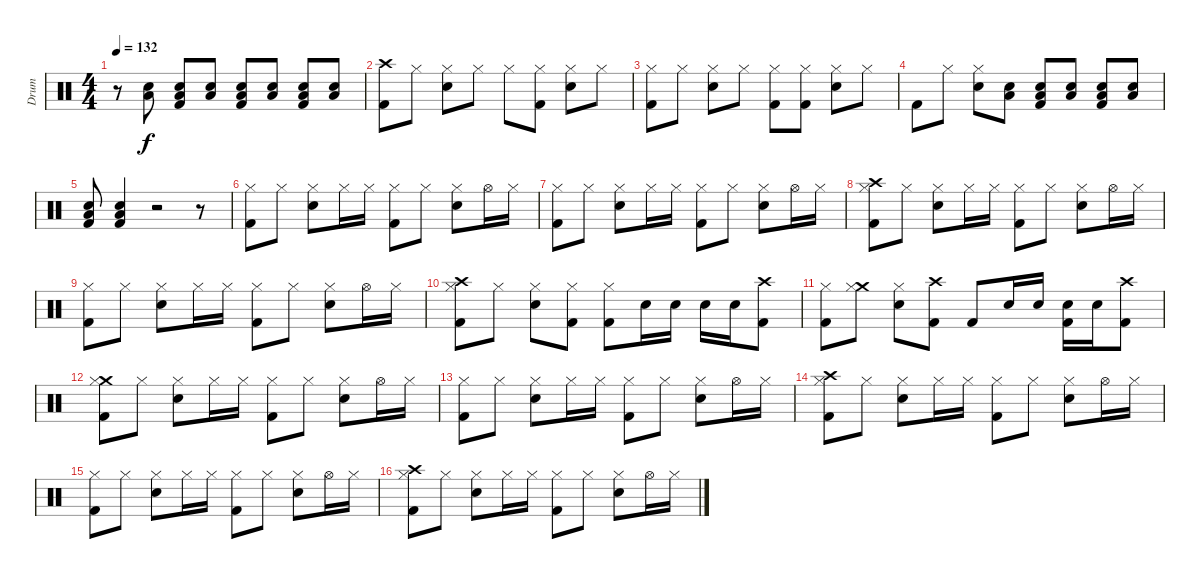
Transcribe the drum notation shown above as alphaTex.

\track ("Drum" "Drum") {instrument percussion}
\staff {score}
\articulation defaults
\ts (4 4)
\tempo 132
\clef neutral
\ks c
r.8{dy f} ("Low Tom (hit)" "Snare (hit) 2").8 ("Low Tom (hit)" "Snare (hit) 2" "Kick (hit) 2").8 ("Low Tom (hit)" "Snare (hit) 2").8 ("Low Tom (hit)" "Snare (hit) 2" "Kick (hit) 2").8 ("Low Tom (hit)" "Snare (hit) 2").8 ("Low Tom (hit)" "Snare (hit) 2" "Kick (hit) 2").8 ("Low Tom (hit)" "Snare (hit) 2").8 |
("Crash high (hit)" "Kick (hit) 2").8 "Hi-Hat (closed)".8 ("Hi-Hat (closed)" "Snare (hit) 2").8 "Hi-Hat (closed)".8 "Hi-Hat (closed)".8 ("Hi-Hat (closed)" "Kick (hit) 2").8 ("Hi-Hat (closed)" "Snare (hit) 2").8 "Hi-Hat (closed)".8 |
("Hi-Hat (closed)" "Kick (hit) 2").8 "Hi-Hat (closed)".8 ("Hi-Hat (closed)" "Snare (hit) 2").8 "Hi-Hat (closed)".8 ("Hi-Hat (closed)" "Kick (hit) 2").8 ("Hi-Hat (closed)" "Kick (hit) 2").8 ("Hi-Hat (closed)" "Snare (hit) 2").8 "Hi-Hat (closed)".8 |
"Kick (hit) 2".8 "Hi-Hat (closed)".8 ("Hi-Hat (closed)" "Snare (hit) 2").8 ("Low Tom (hit)" "Snare (hit) 2").8 ("Low Tom (hit)" "Snare (hit) 2" "Kick (hit) 2").8 ("Low Tom (hit)" "Snare (hit) 2").8 ("Low Tom (hit)" "Snare (hit) 2" "Kick (hit) 2").8 ("Low Tom (hit)" "Snare (hit) 2").8 |
("Snare (hit) 2" "Low Tom (hit)" "Kick (hit) 2").8 ("Snare (hit) 2" "Low Tom (hit)" "Kick (hit) 2").4 r.2 r.8 |
("Hi-Hat (closed)" "Kick (hit) 2").8 "Hi-Hat (closed)".8 ("Hi-Hat (closed)" "Snare (hit) 2").8 "Hi-Hat (closed)".16 "Hi-Hat (closed)".16 ("Hi-Hat (closed)" "Kick (hit) 2").8 "Hi-Hat (closed)".8 ("Hi-Hat (closed)" "Snare (hit) 2").8 "Hi-Hat (open)".16 "Hi-Hat (closed)".16 |
("Hi-Hat (closed)" "Kick (hit) 2").8 "Hi-Hat (closed)".8 ("Hi-Hat (closed)" "Snare (hit) 2").8 "Hi-Hat (closed)".16 "Hi-Hat (closed)".16 ("Hi-Hat (closed)" "Kick (hit) 2").8 "Hi-Hat (closed)".8 ("Hi-Hat (closed)" "Snare (hit) 2").8 "Hi-Hat (open)".16 "Hi-Hat (closed)".16 |
("Crash high (hit)" "Hi-Hat (closed)" "Kick (hit) 2").8 "Hi-Hat (closed)".8 ("Hi-Hat (closed)" "Snare (hit) 2").8 "Hi-Hat (closed)".16 "Hi-Hat (closed)".16 ("Hi-Hat (closed)" "Kick (hit) 2").8 "Hi-Hat (closed)".8 ("Hi-Hat (closed)" "Snare (hit) 2").8 "Hi-Hat (open)".16 "Hi-Hat (closed)".16 |
("Hi-Hat (closed)" "Kick (hit) 2").8 "Hi-Hat (closed)".8 ("Hi-Hat (closed)" "Snare (hit) 2").8 "Hi-Hat (closed)".16 "Hi-Hat (closed)".16 ("Hi-Hat (closed)" "Kick (hit) 2").8 "Hi-Hat (closed)".8 ("Hi-Hat (closed)" "Snare (hit) 2").8 "Hi-Hat (open)".16 "Hi-Hat (closed)".16 |
("Crash high (hit)" "Hi-Hat (closed)" "Kick (hit) 2").8 "Hi-Hat (closed)".8 ("Hi-Hat (closed)" "Snare (hit) 2").8 ("Hi-Hat (closed)" "Kick (hit) 2").8 ("Hi-Hat (closed)" "Kick (hit) 2").8 "Snare (hit) 2".16 "Snare (hit) 2".16 "Snare (hit) 2".16 "Snare (hit) 2".16 ("Crash high (hit)" "Kick (hit) 2").8 |
("Hi-Hat (closed)" "Kick (hit) 2").8 ("Crash medium (hit)" "Hi-Hat (closed)").8 ("Hi-Hat (closed)" "Snare (hit) 2").8 ("Crash high (hit)" "Kick (hit) 2").8 "Kick (hit) 2".8 "Snare (hit) 2".16 "Snare (hit) 2".16 ("Snare (hit) 2" "Kick (hit) 2").16 "Snare (hit) 2".16 ("Crash high (hit)" "Kick (hit) 2").8 |
("Crash medium (hit)" "Hi-Hat (closed)" "Kick (hit) 2").8 "Hi-Hat (closed)".8 ("Hi-Hat (closed)" "Snare (hit) 2").8 "Hi-Hat (closed)".16 "Hi-Hat (closed)".16 ("Hi-Hat (closed)" "Kick (hit) 2").8 "Hi-Hat (closed)".8 ("Hi-Hat (closed)" "Snare (hit) 2").8 "Hi-Hat (open)".16 "Hi-Hat (closed)".16 |
("Hi-Hat (closed)" "Kick (hit) 2").8 "Hi-Hat (closed)".8 ("Hi-Hat (closed)" "Snare (hit) 2").8 "Hi-Hat (closed)".16 "Hi-Hat (closed)".16 ("Hi-Hat (closed)" "Kick (hit) 2").8 "Hi-Hat (closed)".8 ("Hi-Hat (closed)" "Snare (hit) 2").8 "Hi-Hat (open)".16 "Hi-Hat (closed)".16 |
("Crash high (hit)" "Hi-Hat (closed)" "Kick (hit) 2").8 "Hi-Hat (closed)".8 ("Hi-Hat (closed)" "Snare (hit) 2").8 "Hi-Hat (closed)".16 "Hi-Hat (closed)".16 ("Hi-Hat (closed)" "Kick (hit) 2").8 "Hi-Hat (closed)".8 ("Hi-Hat (closed)" "Snare (hit) 2").8 "Hi-Hat (open)".16 "Hi-Hat (closed)".16 |
("Hi-Hat (closed)" "Kick (hit) 2").8 "Hi-Hat (closed)".8 ("Hi-Hat (closed)" "Snare (hit) 2").8 "Hi-Hat (closed)".16 "Hi-Hat (closed)".16 ("Hi-Hat (closed)" "Kick (hit) 2").8 "Hi-Hat (closed)".8 ("Hi-Hat (closed)" "Snare (hit) 2").8 "Hi-Hat (open)".16 "Hi-Hat (closed)".16 |
("Crash high (hit)" "Hi-Hat (closed)" "Kick (hit) 2").8 "Hi-Hat (closed)".8 ("Hi-Hat (closed)" "Snare (hit) 2").8 "Hi-Hat (closed)".16 "Hi-Hat (closed)".16 ("Hi-Hat (closed)" "Kick (hit) 2").8 "Hi-Hat (closed)".8 ("Hi-Hat (closed)" "Snare (hit) 2").8 "Hi-Hat (open)".16 "Hi-Hat (closed)".16
